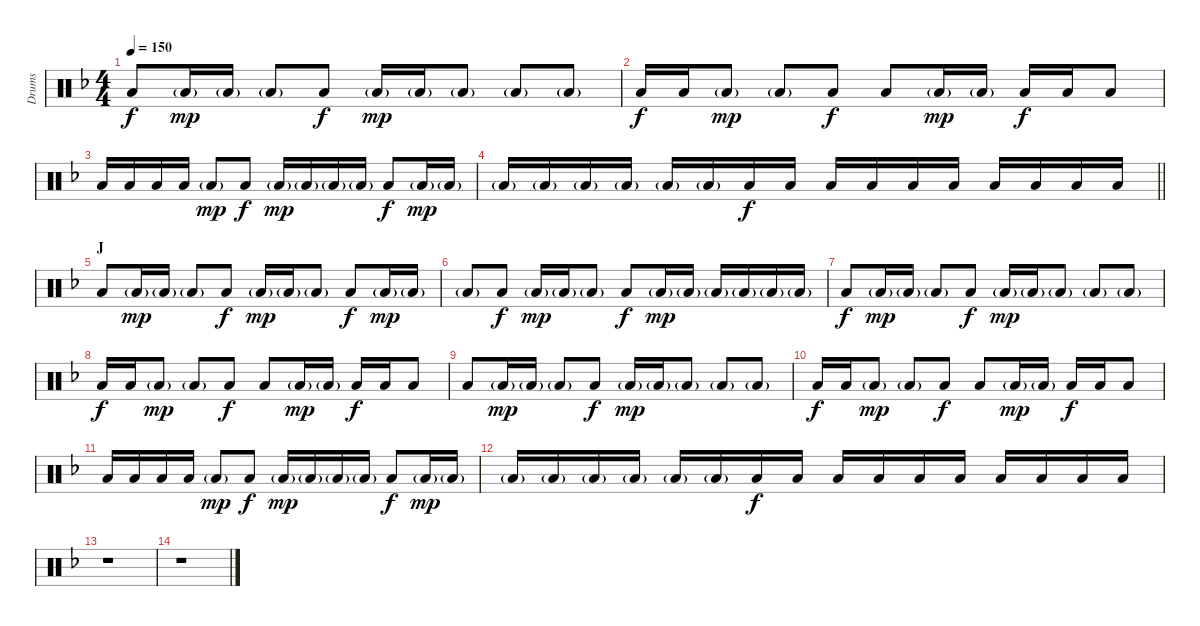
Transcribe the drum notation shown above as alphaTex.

\track ("Drums" "Drums") {instrument percussion}
\staff {score}
\articulation defaults
\ts (4 4)
\tempo 150
\clef neutral
\ks f "Low Tom (hit)".8{dy f} "Low Tom (hit)"{g}.16{dy mp} "Low Tom (hit)"{g}.16 "Low Tom (hit)"{g}.8 "Low Tom (hit)".8{dy f} "Low Tom (hit)"{g}.16{dy mp} "Low Tom (hit)"{g}.16 "Low Tom (hit)"{g}.8 "Low Tom (hit)"{g}.8 "Low Tom (hit)"{g}.8
|
"Low Tom (hit)".16{dy f} "Low Tom (hit)".16 "Low Tom (hit)"{g}.8{dy mp} "Low Tom (hit)"{g}.8 "Low Tom (hit)".8{dy f} "Low Tom (hit)".8 "Low Tom (hit)"{g}.16{dy mp} "Low Tom (hit)"{g}.16 "Low Tom (hit)".16{dy f} "Low Tom (hit)".16 "Low Tom (hit)".8 |
"Low Tom (hit)".16 "Low Tom (hit)".16 "Low Tom (hit)".16 "Low Tom (hit)".16 "Low Tom (hit)"{g}.8{dy mp} "Low Tom (hit)".8{dy f} "Low Tom (hit)"{g}.16{dy mp} "Low Tom (hit)"{g}.16 "Low Tom (hit)"{g}.16 "Low Tom (hit)"{g}.16 "Low Tom (hit)".8{dy f} "Low Tom (hit)"{g}.16{dy mp} "Low Tom (hit)"{g}.16 |
\barLineRight lightlight "Low Tom (hit)"{g}.16 "Low Tom (hit)"{g}.16 "Low Tom (hit)"{g}.16 "Low Tom (hit)"{g}.16 "Low Tom (hit)"{g}.16 "Low Tom (hit)"{g}.16 "Low Tom (hit)".16{dy f} "Low Tom (hit)".16 "Low Tom (hit)".16 "Low Tom (hit)".16 "Low Tom (hit)".16 "Low Tom (hit)".16 "Low Tom (hit)".16 "Low Tom (hit)".16 "Low Tom (hit)".16 "Low Tom (hit)".16
|
\section ("" "J")
"Low Tom (hit)".8 "Low Tom (hit)"{g}.16{dy mp} "Low Tom (hit)"{g}.16 "Low Tom (hit)"{g}.8 "Low Tom (hit)".8{dy f} "Low Tom (hit)"{g}.16{dy mp} "Low Tom (hit)"{g}.16 "Low Tom (hit)"{g}.8 "Low Tom (hit)".8{dy f} "Low Tom (hit)"{g}.16{dy mp} "Low Tom (hit)"{g}.16 |
"Low Tom (hit)"{g}.8 "Low Tom (hit)".8{dy f} "Low Tom (hit)"{g}.16{dy mp} "Low Tom (hit)"{g}.16 "Low Tom (hit)"{g}.8 "Low Tom (hit)".8{dy f} "Low Tom (hit)"{g}.16{dy mp} "Low Tom (hit)"{g}.16 "Low Tom (hit)"{g}.16 "Low Tom (hit)"{g}.16 "Low Tom (hit)"{g}.16 "Low Tom (hit)"{g}.16 |
"Low Tom (hit)".8{dy f} "Low Tom (hit)"{g}.16{dy mp} "Low Tom (hit)"{g}.16 "Low Tom (hit)"{g}.8 "Low Tom (hit)".8{dy f} "Low Tom (hit)"{g}.16{dy mp} "Low Tom (hit)"{g}.16 "Low Tom (hit)"{g}.8 "Low Tom (hit)"{g}.8 "Low Tom (hit)"{g}.8 |
"Low Tom (hit)".16{dy f} "Low Tom (hit)".16 "Low Tom (hit)"{g}.8{dy mp} "Low Tom (hit)"{g}.8 "Low Tom (hit)".8{dy f} "Low Tom (hit)".8 "Low Tom (hit)"{g}.16{dy mp} "Low Tom (hit)"{g}.16 "Low Tom (hit)".16{dy f} "Low Tom (hit)".16 "Low Tom (hit)".8 |
"Low Tom (hit)".8 "Low Tom (hit)"{g}.16{dy mp} "Low Tom (hit)"{g}.16 "Low Tom (hit)"{g}.8 "Low Tom (hit)".8{dy f} "Low Tom (hit)"{g}.16{dy mp} "Low Tom (hit)"{g}.16 "Low Tom (hit)"{g}.8 "Low Tom (hit)"{g}.8 "Low Tom (hit)"{g}.8 |
"Low Tom (hit)".16{dy f} "Low Tom (hit)".16 "Low Tom (hit)"{g}.8{dy mp} "Low Tom (hit)"{g}.8 "Low Tom (hit)".8{dy f} "Low Tom (hit)".8 "Low Tom (hit)"{g}.16{dy mp} "Low Tom (hit)"{g}.16 "Low Tom (hit)".16{dy f} "Low Tom (hit)".16 "Low Tom (hit)".8 |
"Low Tom (hit)".16 "Low Tom (hit)".16 "Low Tom (hit)".16 "Low Tom (hit)".16 "Low Tom (hit)"{g}.8{dy mp} "Low Tom (hit)".8{dy f} "Low Tom (hit)"{g}.16{dy mp} "Low Tom (hit)"{g}.16 "Low Tom (hit)"{g}.16 "Low Tom (hit)"{g}.16 "Low Tom (hit)".8{dy f} "Low Tom (hit)"{g}.16{dy mp} "Low Tom (hit)"{g}.16 |
"Low Tom (hit)"{g}.16 "Low Tom (hit)"{g}.16 "Low Tom (hit)"{g}.16 "Low Tom (hit)"{g}.16 "Low Tom (hit)"{g}.16 "Low Tom (hit)"{g}.16 "Low Tom (hit)".16{dy f} "Low Tom (hit)".16 "Low Tom (hit)".16 "Low Tom (hit)".16 "Low Tom (hit)".16 "Low Tom (hit)".16 "Low Tom (hit)".16 "Low Tom (hit)".16 "Low Tom (hit)".16 "Low Tom (hit)".16 |
r.1 |
r.1
